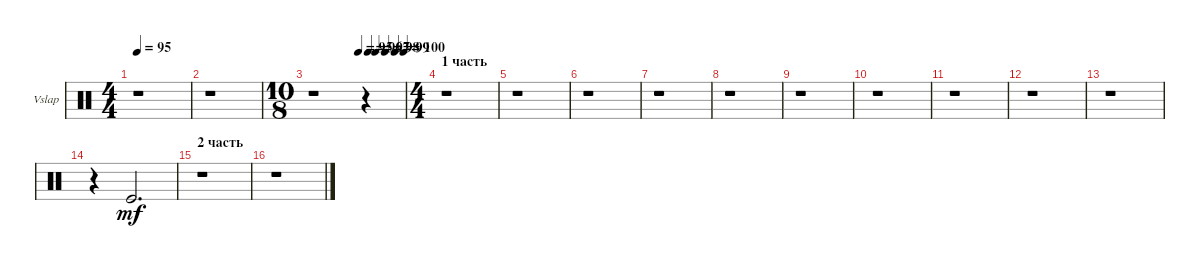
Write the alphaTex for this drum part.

\defaultSystemsLayout 4
\bracketExtendMode groupsimilarinstruments
\firstSystemTrackNameOrientation horizontal
\otherSystemsTrackNameOrientation horizontal
\track ("Vibraslap" "Vslap") {instrument percussion}
\staff {score}
\articulation defaults
\ts (4 4)
\tempo 95
\clef neutral
\ks c
r.1{dy mf} |
\scale
0.5 r.1 |
\ts (10 8)
\tempo (95 0.5)
\tempo (96 0.60625)
\tempo (97 0.6875)
\tempo (98 0.79375)
\tempo (99 0.9)
\tempo (100 0.99375)
\scale
0.5 r.1 r.4 |
\ts (4 4)
\section ("" "1 часть")
\scale
0.643312 r.1 |
\scale
0.356688 r.1 |
\scale
0.5 r.1 |
\scale
0.5 r.1 |
\scale
0.5 r.1 |
\scale
0.5 r.1 |
\scale
0.5 r.1 |
\scale
0.5 r.1 |
\scale
0.5 r.1 |
\scale
0.5 r.1 |
\scale
0.5 r.4 "Kick (hit)".2{d} |
\section ("" "2 часть")
\scale
0.5 r.1 |
\scale
0.5 r.1
